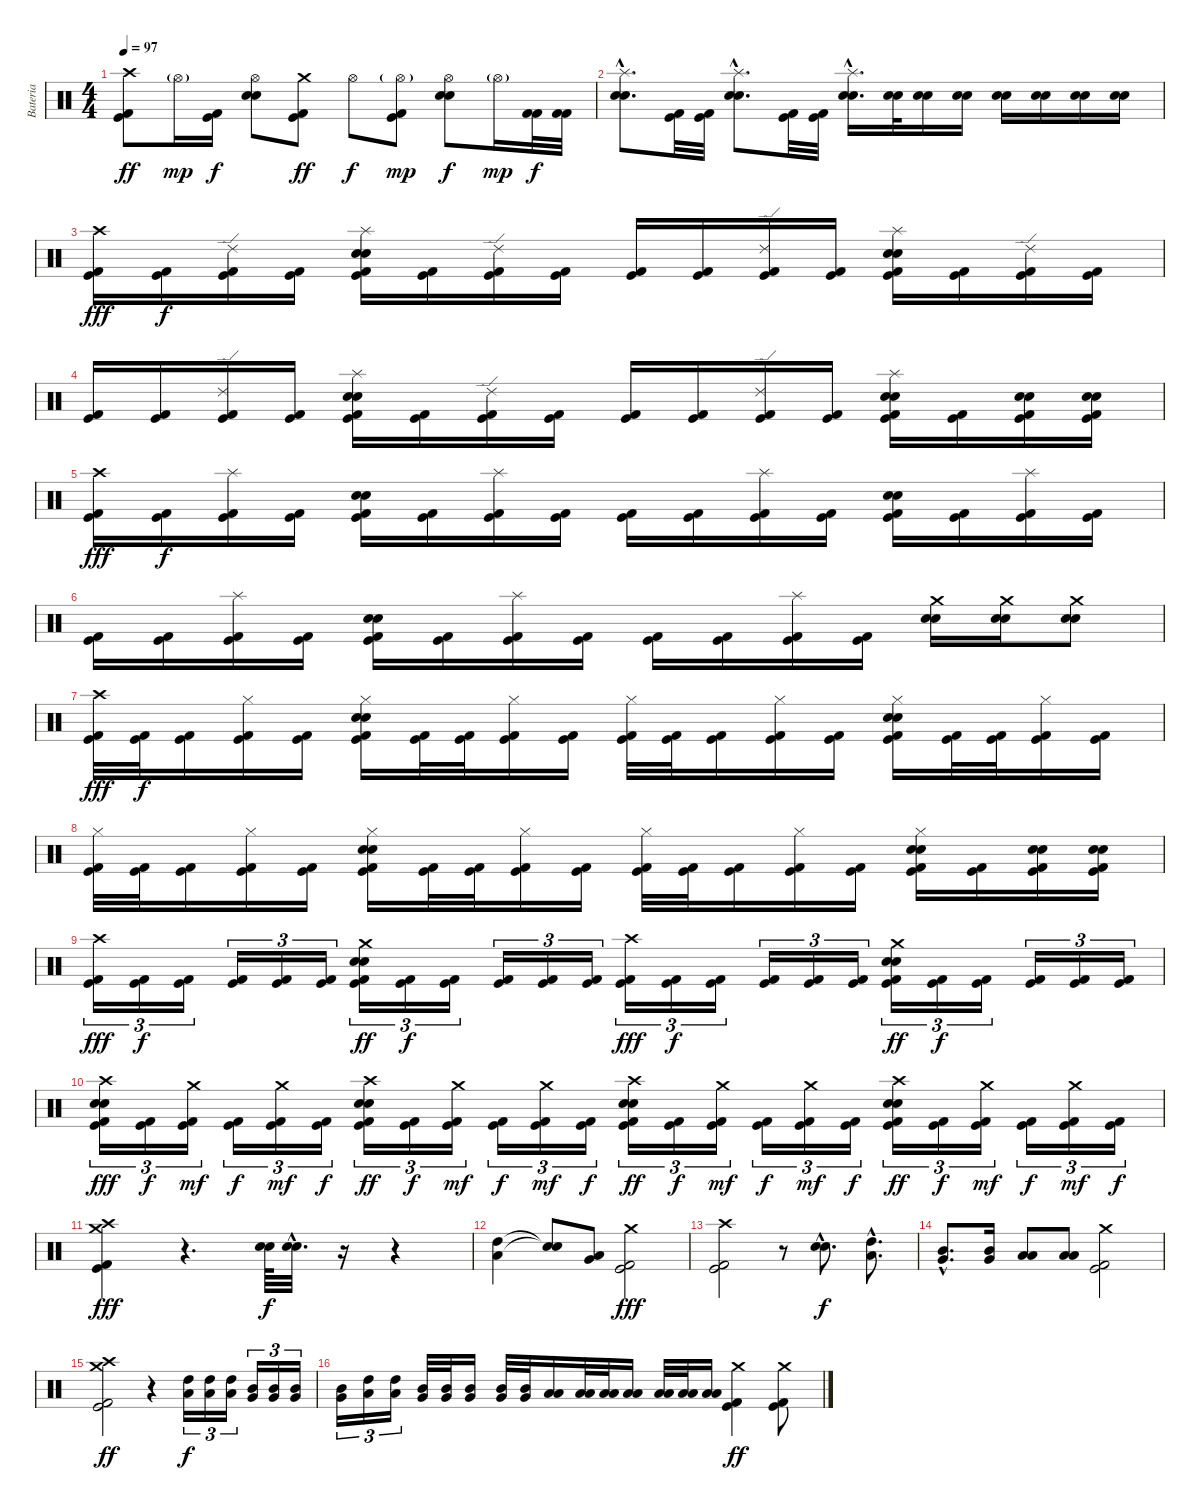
\track ("Bateria" "Bateria") {instrument percussion}
\staff {score}
\articulation defaults
\ts (4 4)
\tempo 97
\clef neutral
\ks c
("Crash high (hit)" "Kick (hit) 2" "Kick (hit)").8{dy ff} "Hi-Hat (open)"{g}.16{dy mp} ("Kick (hit) 2" "Kick (hit)").16{dy f} ("Hi-Hat (open)" "Electric Snare (hit)" "Snare (hit) 2").8 ("Crash medium (hit)" "Kick (hit) 2" "Kick (hit)").8{dy ff} "Hi-Hat (open)".8{dy f} ("Hi-Hat (open)"{g} "Kick (hit) 2" "Kick (hit)").8{dy mp} ("Hi-Hat (open)" "Electric Snare (hit)" "Snare (hit) 2").8{dy f} "Hi-Hat (open)"{g}.16{dy mp} ("Kick (hit) 2" "Kick (hit) 2").32{dy f} ("Kick (hit) 2" "Kick (hit) 2").32 |
("Splash (hit)"{hac} "Electric Snare (hit)"{hac} "Snare (hit) 2"{hac}).8{d} ("Kick (hit) 2" "Kick (hit)").32 ("Kick (hit) 2" "Kick (hit)").32 ("Splash (hit)"{hac} "Electric Snare (hit)"{hac} "Snare (hit) 2"{hac}).8{d} ("Kick (hit) 2" "Kick (hit)").32 ("Kick (hit) 2" "Kick (hit)").32 ("Splash (hit)"{hac} "Electric Snare (hit)"{hac} "Snare (hit) 2"{hac}).16{d} ("Electric Snare (hit)" "Snare (hit) 2").32 ("Electric Snare (hit)" "Snare (hit) 2").16 ("Electric Snare (hit)" "Snare (hit) 2").16 ("Electric Snare (hit)" "Snare (hit) 2").16 ("Electric Snare (hit)" "Snare (hit) 2").16 ("Electric Snare (hit)" "Snare (hit) 2").16 ("Electric Snare (hit)" "Snare (hit) 2").16 |
("Crash high (hit)" "Kick (hit) 2" "Kick (hit)").16{dy fff} ("Kick (hit) 2" "Kick (hit)").16{dy f} ("Ride (edge) 2" "Kick (hit) 2" "Kick (hit)").16 ("Kick (hit) 2" "Kick (hit)").16 ("Splash (hit)" "Electric Snare (hit)" "Snare (hit) 2" "Kick (hit) 2" "Kick (hit)").16 ("Kick (hit) 2" "Kick (hit)").16 ("Ride (edge) 2" "Kick (hit) 2" "Kick (hit)").16 ("Kick (hit) 2" "Kick (hit)").16 ("Kick (hit) 2" "Kick (hit)").16 ("Kick (hit) 2" "Kick (hit)").16 ("Ride (edge) 2" "Kick (hit) 2" "Kick (hit)").16 ("Kick (hit) 2" "Kick (hit)").16 ("Splash (hit)" "Electric Snare (hit)" "Snare (hit) 2" "Kick (hit) 2" "Kick (hit)").16 ("Kick (hit) 2" "Kick (hit)").16 ("Ride (edge) 2" "Kick (hit) 2" "Kick (hit)").16 ("Kick (hit) 2" "Kick (hit)").16 |
("Kick (hit) 2" "Kick (hit)").16 ("Kick (hit) 2" "Kick (hit)").16 ("Ride (edge) 2" "Kick (hit) 2" "Kick (hit)").16 ("Kick (hit) 2" "Kick (hit)").16 ("Splash (hit)" "Electric Snare (hit)" "Snare (hit) 2" "Kick (hit) 2" "Kick (hit)").16 ("Kick (hit) 2" "Kick (hit)").16 ("Ride (edge) 2" "Kick (hit) 2" "Kick (hit)").16 ("Kick (hit) 2" "Kick (hit)").16 ("Kick (hit) 2" "Kick (hit)").16 ("Kick (hit) 2" "Kick (hit)").16 ("Ride (edge) 2" "Kick (hit) 2" "Kick (hit)").16 ("Kick (hit) 2" "Kick (hit)").16 ("Splash (hit)" "Electric Snare (hit)" "Snare (hit) 2" "Kick (hit) 2" "Kick (hit)").16 ("Kick (hit) 2" "Kick (hit)").16 ("Electric Snare (hit)" "Snare (hit) 2" "Kick (hit) 2" "Kick (hit)").16 ("Electric Snare (hit)" "Snare (hit) 2" "Kick (hit) 2" "Kick (hit)").16 |
("Crash high (hit)" "Kick (hit) 2" "Kick (hit)").16{dy fff} ("Kick (hit) 2" "Kick (hit)").16{dy f} ("Splash (hit)" "Kick (hit) 2" "Kick (hit)").16 ("Kick (hit) 2" "Kick (hit)").16 ("Electric Snare (hit)" "Snare (hit) 2" "Kick (hit) 2" "Kick (hit)").16 ("Kick (hit) 2" "Kick (hit)").16 ("Splash (hit)" "Kick (hit) 2" "Kick (hit)").16 ("Kick (hit) 2" "Kick (hit)").16 ("Kick (hit) 2" "Kick (hit)").16 ("Kick (hit) 2" "Kick (hit)").16 ("Splash (hit)" "Kick (hit) 2" "Kick (hit)").16 ("Kick (hit) 2" "Kick (hit)").16 ("Electric Snare (hit)" "Snare (hit) 2" "Kick (hit) 2" "Kick (hit)").16 ("Kick (hit) 2" "Kick (hit)").16 ("Splash (hit)" "Kick (hit) 2" "Kick (hit)").16 ("Kick (hit) 2" "Kick (hit)").16 |
("Kick (hit) 2" "Kick (hit)").16 ("Kick (hit) 2" "Kick (hit)").16 ("Splash (hit)" "Kick (hit) 2" "Kick (hit)").16 ("Kick (hit) 2" "Kick (hit)").16 ("Electric Snare (hit)" "Snare (hit) 2" "Kick (hit) 2" "Kick (hit)").16 ("Kick (hit) 2" "Kick (hit)").16 ("Splash (hit)" "Kick (hit) 2" "Kick (hit)").16 ("Kick (hit) 2" "Kick (hit)").16 ("Kick (hit) 2" "Kick (hit)").16 ("Kick (hit) 2" "Kick (hit)").16 ("Splash (hit)" "Kick (hit) 2" "Kick (hit)").16 ("Kick (hit) 2" "Kick (hit)").16 ("Crash medium (hit)" "Electric Snare (hit)" "Snare (hit) 2").16 ("Crash medium (hit)" "Electric Snare (hit)" "Snare (hit) 2").16 ("Crash medium (hit)" "Electric Snare (hit)" "Snare (hit) 2").8 |
("Crash high (hit)" "Kick (hit) 2" "Kick (hit)").32{dy fff} ("Kick (hit) 2" "Kick (hit)").32{dy f} ("Kick (hit) 2" "Kick (hit)").16 ("Hi-Hat (closed)" "Kick (hit) 2" "Kick (hit)").16 ("Kick (hit) 2" "Kick (hit)").16 ("Hi-Hat (closed)" "Electric Snare (hit)" "Snare (hit) 2" "Kick (hit) 2" "Kick (hit)").16 ("Kick (hit) 2" "Kick (hit)").32 ("Kick (hit) 2" "Kick (hit)").32 ("Hi-Hat (closed)" "Kick (hit) 2" "Kick (hit)").16 ("Kick (hit) 2" "Kick (hit)").16 ("Hi-Hat (closed)" "Kick (hit) 2" "Kick (hit)").32 ("Kick (hit) 2" "Kick (hit)").32 ("Kick (hit) 2" "Kick (hit)").16 ("Hi-Hat (closed)" "Kick (hit) 2" "Kick (hit)").16 ("Kick (hit) 2" "Kick (hit)").16 ("Hi-Hat (closed)" "Electric Snare (hit)" "Snare (hit) 2" "Kick (hit) 2" "Kick (hit)").16 ("Kick (hit) 2" "Kick (hit)").32 ("Kick (hit) 2" "Kick (hit)").32 ("Hi-Hat (closed)" "Kick (hit) 2" "Kick (hit)").16 ("Kick (hit) 2" "Kick (hit)").16 |
("Hi-Hat (closed)" "Kick (hit) 2" "Kick (hit)").32 ("Kick (hit) 2" "Kick (hit)").32 ("Kick (hit) 2" "Kick (hit)").16 ("Hi-Hat (closed)" "Kick (hit) 2" "Kick (hit)").16 ("Kick (hit) 2" "Kick (hit)").16 ("Hi-Hat (closed)" "Electric Snare (hit)" "Snare (hit) 2" "Kick (hit) 2" "Kick (hit)").16 ("Kick (hit) 2" "Kick (hit)").32 ("Kick (hit) 2" "Kick (hit)").32 ("Hi-Hat (closed)" "Kick (hit) 2" "Kick (hit)").16 ("Kick (hit) 2" "Kick (hit)").16 ("Hi-Hat (closed)" "Kick (hit) 2" "Kick (hit)").32 ("Kick (hit) 2" "Kick (hit)").32 ("Kick (hit) 2" "Kick (hit)").16 ("Hi-Hat (closed)" "Kick (hit) 2" "Kick (hit)").16 ("Kick (hit) 2" "Kick (hit)").16 ("Hi-Hat (closed)" "Electric Snare (hit)" "Snare (hit) 2" "Kick (hit) 2" "Kick (hit)").16 ("Kick (hit) 2" "Kick (hit)").16 ("Electric Snare (hit)" "Snare (hit) 2" "Kick (hit) 2" "Kick (hit)").16 ("Electric Snare (hit)" "Snare (hit) 2" "Kick (hit) 2" "Kick (hit)").16 |
("Crash high (hit)" "Kick (hit) 2" "Kick (hit)").16{tu (3 2) dy fff} ("Kick (hit) 2" "Kick (hit)").16{tu (3 2) dy f} ("Kick (hit) 2" "Kick (hit)").16{tu (3 2)} ("Kick (hit) 2" "Kick (hit)").16{tu (3 2)} ("Kick (hit) 2" "Kick (hit)").16{tu (3 2)} ("Kick (hit) 2" "Kick (hit)").16{tu (3 2)} ("Crash medium (hit)" "Electric Snare (hit)" "Snare (hit) 2" "Kick (hit) 2" "Kick (hit)").16{tu (3 2) dy ff} ("Kick (hit) 2" "Kick (hit)").16{tu (3 2) dy f} ("Kick (hit) 2" "Kick (hit)").16{tu (3 2)} ("Kick (hit) 2" "Kick (hit)").16{tu (3 2)} ("Kick (hit) 2" "Kick (hit)").16{tu (3 2)} ("Kick (hit) 2" "Kick (hit)").16{tu (3 2)} ("Crash high (hit)" "Kick (hit) 2" "Kick (hit)").16{tu (3 2) dy fff} ("Kick (hit) 2" "Kick (hit)").16{tu (3 2) dy f} ("Kick (hit) 2" "Kick (hit)").16{tu (3 2)} ("Kick (hit) 2" "Kick (hit)").16{tu (3 2)} ("Kick (hit) 2" "Kick (hit)").16{tu (3 2)} ("Kick (hit) 2" "Kick (hit)").16{tu (3 2)} ("Crash medium (hit)" "Electric Snare (hit)" "Snare (hit) 2" "Kick (hit) 2" "Kick (hit)").16{tu (3 2) dy ff} ("Kick (hit) 2" "Kick (hit)").16{tu (3 2) dy f} ("Kick (hit) 2" "Kick (hit)").16{tu (3 2)} ("Kick (hit) 2" "Kick (hit)").16{tu (3 2)} ("Kick (hit) 2" "Kick (hit)").16{tu (3 2)} ("Kick (hit) 2" "Kick (hit)").16{tu (3 2)} |
("Crash high (hit)" "Electric Snare (hit)" "Snare (hit) 2" "Kick (hit) 2" "Kick (hit)").16{tu (3 2) dy fff} ("Kick (hit) 2" "Kick (hit)").16{tu (3 2) dy f} ("Crash medium (hit)" "Kick (hit) 2" "Kick (hit)").16{tu (3 2) dy mf} ("Kick (hit) 2" "Kick (hit)").16{tu (3 2) dy f} ("Crash medium (hit)" "Kick (hit) 2" "Kick (hit)").16{tu (3 2) dy mf} ("Kick (hit) 2" "Kick (hit)").16{tu (3 2) dy f} ("Crash high (hit)" "Electric Snare (hit)" "Snare (hit) 2" "Kick (hit) 2" "Kick (hit)").16{tu (3 2) dy ff} ("Kick (hit) 2" "Kick (hit)").16{tu (3 2) dy f} ("Crash medium (hit)" "Kick (hit) 2" "Kick (hit)").16{tu (3 2) dy mf} ("Kick (hit) 2" "Kick (hit)").16{tu (3 2) dy f} ("Crash medium (hit)" "Kick (hit) 2" "Kick (hit)").16{tu (3 2) dy mf} ("Kick (hit) 2" "Kick (hit)").16{tu (3 2) dy f} ("Crash high (hit)" "Electric Snare (hit)" "Snare (hit) 2" "Kick (hit) 2" "Kick (hit)").16{tu (3 2) dy ff} ("Kick (hit) 2" "Kick (hit)").16{tu (3 2) dy f} ("Crash medium (hit)" "Kick (hit) 2" "Kick (hit)").16{tu (3 2) dy mf} ("Kick (hit) 2" "Kick (hit)").16{tu (3 2) dy f} ("Crash medium (hit)" "Kick (hit) 2" "Kick (hit)").16{tu (3 2) dy mf} ("Kick (hit) 2" "Kick (hit)").16{tu (3 2) dy f} ("Crash high (hit)" "Electric Snare (hit)" "Snare (hit) 2" "Kick (hit) 2" "Kick (hit)").16{tu (3 2) dy ff} ("Kick (hit) 2" "Kick (hit)").16{tu (3 2) dy f} ("Crash medium (hit)" "Kick (hit) 2" "Kick (hit)").16{tu (3 2) dy mf} ("Kick (hit) 2" "Kick (hit)").16{tu (3 2) dy f} ("Crash medium (hit)" "Kick (hit) 2" "Kick (hit)").16{tu (3 2) dy mf} ("Kick (hit) 2" "Kick (hit)").16{tu (3 2) dy f} |
("Crash high (hit)" "Crash medium (hit)" "Kick (hit) 2" "Kick (hit)").4{dy fff} r.4{d} ("Electric Snare (hit)" "Snare (hit) 2").64{dy f} ("Electric Snare (hit)"{hac} "Snare (hit) 2"{hac}).32{d} r.16 r.4 |
("High Tom (hit)" "Low Tom (hit)").4 ("Snare (hit)"{t} "Snare (hit)"{t}).8 ("Low Tom (hit)" "Very Low Tom (hit)").8 ("Crash medium (hit)" "Kick (hit) 2" "Kick (hit)").2{dy fff} |
("Crash high (hit)" "Kick (hit) 2" "Kick (hit)").2 r.8 ("Electric Snare (hit)"{hac} "Snare (hit) 2"{hac}).8{d dy f} ("High Tom (hit)"{hac} "Low Tom (hit)"{hac}).8{d} |
("Mid Tom (hit)"{hac} "Very Low Tom (hit)"{hac}).8{d} ("Mid Tom (hit)" "Very Low Tom (hit)").16 ("Low Tom (hit)" "Low Floor Tom (hit)").8 ("Low Tom (hit)" "Low Floor Tom (hit)").8 ("Crash medium (hit)" "Kick (hit) 2" "Kick (hit)").2 |
("Crash high (hit)" "Crash medium (hit)" "Kick (hit) 2" "Kick (hit)").2{dy ff} r.4 ("High Tom (hit)" "Low Tom (hit)").16{tu (3 2) dy f} ("High Tom (hit)" "Low Tom (hit)").16{tu (3 2)} ("High Tom (hit)" "Low Tom (hit)").16{tu (3 2)} ("Mid Tom (hit)" "Very Low Tom (hit)").16{tu (3 2)} ("Mid Tom (hit)" "Very Low Tom (hit)").16{tu (3 2)} ("Mid Tom (hit)" "Very Low Tom (hit)").16{tu (3 2)} |
("Mid Tom (hit)" "Very Low Tom (hit)").16{tu (3 2)} ("High Tom (hit)" "Low Tom (hit)").16{tu (3 2)} ("High Tom (hit)" "Low Tom (hit)").16{tu (3 2)} ("Mid Tom (hit)" "Very Low Tom (hit)").32 ("Mid Tom (hit)" "Very Low Tom (hit)").32 ("Mid Tom (hit)" "Very Low Tom (hit)").16 ("Mid Tom (hit)" "Very Low Tom (hit)").32 ("Mid Tom (hit)" "Very Low Tom (hit)").32 ("Low Tom (hit)" "Low Floor Tom (hit)").16 ("Low Tom (hit)" "Low Floor Tom (hit)").32 ("Low Tom (hit)" "Low Floor Tom (hit)").32 ("Low Tom (hit)" "Low Floor Tom (hit)").16 ("Low Tom (hit)" "Low Floor Tom (hit)").32 ("Low Tom (hit)" "Low Floor Tom (hit)").32 ("Low Tom (hit)" "Low Floor Tom (hit)").16 ("Crash medium (hit)" "Kick (hit) 2" "Kick (hit)").4{dy ff} ("Crash medium (hit)" "Kick (hit) 2" "Kick (hit)").8
